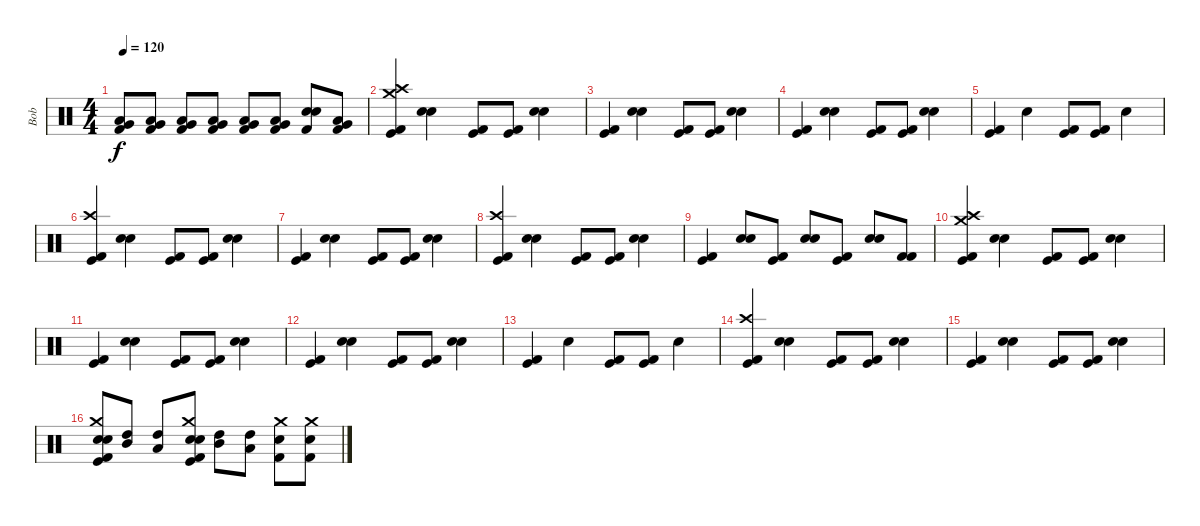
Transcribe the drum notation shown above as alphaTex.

\track ("Bob" "Bob") {instrument percussion}
\staff {score}
\articulation defaults
\ts (4 4)
\tempo 120
\clef neutral
\ks c
("Very Low Tom (hit)" "Low Tom (hit)" "Kick (hit) 2").8{dy f} ("Very Low Tom (hit)" "Low Tom (hit)" "Kick (hit) 2").8 ("Very Low Tom (hit)" "Low Tom (hit)" "Kick (hit) 2").8 ("Very Low Tom (hit)" "Low Tom (hit)" "Kick (hit) 2").8 ("Very Low Tom (hit)" "Low Tom (hit)" "Kick (hit) 2").8 ("Very Low Tom (hit)" "Low Tom (hit)" "Kick (hit) 2").8 ("Electric Snare (hit)" "Snare (hit) 2" "Kick (hit) 2").8 ("Very Low Tom (hit)" "Low Tom (hit)" "Kick (hit) 2").8 |
("Crash medium (hit)" "Crash high (hit)" "Kick (hit)" "Kick (hit) 2").4 ("Electric Snare (hit)" "Snare (hit) 2").4 ("Kick (hit)" "Kick (hit) 2").8 ("Kick (hit)" "Kick (hit) 2").8 ("Electric Snare (hit)" "Snare (hit) 2").4 |
("Kick (hit)" "Kick (hit) 2").4 ("Electric Snare (hit)" "Snare (hit) 2").4 ("Kick (hit)" "Kick (hit) 2").8 ("Kick (hit)" "Kick (hit) 2").8 ("Electric Snare (hit)" "Snare (hit) 2").4 |
("Kick (hit)" "Kick (hit) 2").4 ("Electric Snare (hit)" "Snare (hit) 2").4 ("Kick (hit)" "Kick (hit) 2").8 ("Kick (hit)" "Kick (hit) 2").8 ("Electric Snare (hit)" "Snare (hit) 2").4 |
("Kick (hit)" "Kick (hit) 2").4 "Snare (hit) 2".4 ("Kick (hit)" "Kick (hit) 2").8 ("Kick (hit)" "Kick (hit) 2").8 "Snare (hit) 2".4 |
("Crash high (hit)" "Kick (hit)" "Kick (hit) 2").4 ("Electric Snare (hit)" "Snare (hit) 2").4 ("Kick (hit)" "Kick (hit) 2").8 ("Kick (hit)" "Kick (hit) 2").8 ("Electric Snare (hit)" "Snare (hit) 2").4 |
("Kick (hit)" "Kick (hit) 2").4 ("Electric Snare (hit)" "Snare (hit) 2").4 ("Kick (hit)" "Kick (hit) 2").8 ("Kick (hit)" "Kick (hit) 2").8 ("Electric Snare (hit)" "Snare (hit) 2").4 |
("Crash high (hit)" "Kick (hit)" "Kick (hit) 2").4 ("Electric Snare (hit)" "Snare (hit) 2").4 ("Kick (hit)" "Kick (hit) 2").8 ("Kick (hit)" "Kick (hit) 2").8 ("Electric Snare (hit)" "Snare (hit) 2").4 |
("Kick (hit)" "Kick (hit) 2").4 ("Electric Snare (hit)" "Snare (hit) 2").8 ("Kick (hit)" "Kick (hit) 2").8 ("Electric Snare (hit)" "Snare (hit) 2").8 ("Kick (hit)" "Kick (hit) 2").8 ("Electric Snare (hit)" "Snare (hit) 2").8 ("Kick (hit) 2" "Kick (hit) 2").8 |
("Crash medium (hit)" "Crash high (hit)" "Kick (hit)" "Kick (hit) 2").4 ("Electric Snare (hit)" "Snare (hit) 2").4 ("Kick (hit)" "Kick (hit) 2").8 ("Kick (hit)" "Kick (hit) 2").8 ("Electric Snare (hit)" "Snare (hit) 2").4 |
("Kick (hit)" "Kick (hit) 2").4 ("Electric Snare (hit)" "Snare (hit) 2").4 ("Kick (hit)" "Kick (hit) 2").8 ("Kick (hit)" "Kick (hit) 2").8 ("Electric Snare (hit)" "Snare (hit) 2").4 |
("Kick (hit)" "Kick (hit) 2").4 ("Electric Snare (hit)" "Snare (hit) 2").4 ("Kick (hit)" "Kick (hit) 2").8 ("Kick (hit)" "Kick (hit) 2").8 ("Electric Snare (hit)" "Snare (hit) 2").4 |
("Kick (hit)" "Kick (hit) 2").4 "Snare (hit) 2".4 ("Kick (hit)" "Kick (hit) 2").8 ("Kick (hit)" "Kick (hit) 2").8 "Snare (hit) 2".4 |
("Crash high (hit)" "Kick (hit)" "Kick (hit) 2").4 ("Electric Snare (hit)" "Snare (hit) 2").4 ("Kick (hit)" "Kick (hit) 2").8 ("Kick (hit)" "Kick (hit) 2").8 ("Electric Snare (hit)" "Snare (hit) 2").4 |
("Kick (hit)" "Kick (hit) 2").4 ("Electric Snare (hit)" "Snare (hit) 2").4 ("Kick (hit)" "Kick (hit) 2").8 ("Kick (hit)" "Kick (hit) 2").8 ("Electric Snare (hit)" "Snare (hit) 2").4 |
("Crash medium (hit)" "Electric Snare (hit)" "Snare (hit) 2" "Kick (hit)" "Kick (hit) 2").8 ("Mid Tom (hit)" "High Tom (hit)").8 ("High Tom (hit)" "Low Tom (hit)").8 ("Crash medium (hit)" "Electric Snare (hit)" "Snare (hit) 2" "Kick (hit)" "Kick (hit) 2").8 ("Mid Tom (hit)" "High Tom (hit)").8 ("High Tom (hit)" "Low Tom (hit)").8 ("Crash medium (hit)" "Snare (hit) 2" "Kick (hit) 2").8 ("Crash medium (hit)" "Snare (hit) 2" "Kick (hit) 2").8
